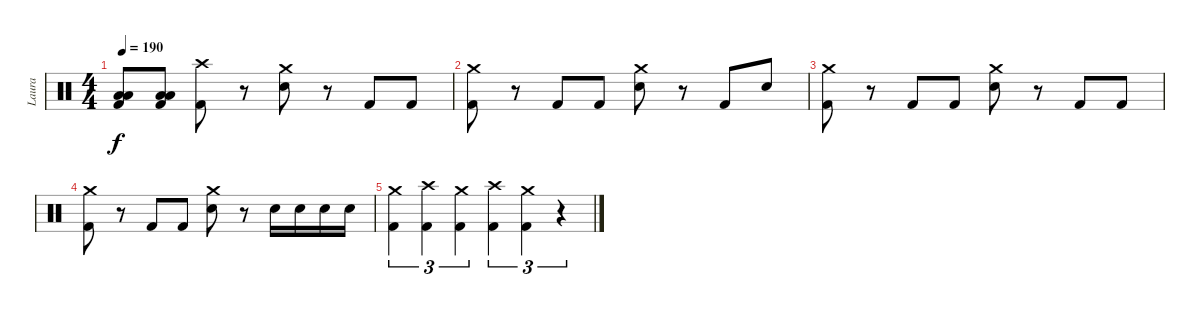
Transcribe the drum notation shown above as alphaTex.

\track ("Laura" "Laura") {instrument percussion}
\staff {score}
\articulation defaults
\ts (4 4)
\tempo 190
\clef neutral
\ks c
("Low Floor Tom (hit)" "Low Floor Tom (hit)" "Kick (hit) 2").8{dy f} ("Low Floor Tom (hit)" "Low Floor Tom (hit)" "Kick (hit) 2").8 ("Crash high (hit)" "Kick (hit) 2").8 r.8 ("Crash medium (hit)" "Electric Snare (hit)").8 r.8 "Kick (hit) 2".8 "Kick (hit) 2".8 |
("Crash medium (hit)" "Kick (hit) 2").8 r.8 "Kick (hit) 2".8 "Kick (hit) 2".8 ("Crash medium (hit)" "Electric Snare (hit)").8 r.8 "Kick (hit) 2".8 "Electric Snare (hit)".8 |
("Crash medium (hit)" "Kick (hit) 2").8 r.8 "Kick (hit) 2".8 "Kick (hit) 2".8 ("Crash medium (hit)" "Electric Snare (hit)").8 r.8 "Kick (hit) 2".8 "Kick (hit) 2".8 |
("Crash medium (hit)" "Kick (hit) 2").8 r.8 "Kick (hit) 2".8 "Kick (hit) 2".8 ("Crash medium (hit)" "Electric Snare (hit)").8 r.8 "Electric Snare (hit)".16 "Electric Snare (hit)".16 "Electric Snare (hit)".16 "Electric Snare (hit)".16 |
("Crash medium (hit)" "Kick (hit) 2").4{tu (3 2)} ("Crash high (hit)" "Kick (hit) 2").4{tu (3 2)} ("Crash medium (hit)" "Kick (hit) 2").4{tu (3 2)} ("Crash high (hit)" "Kick (hit) 2").4{tu (3 2)} ("Crash medium (hit)" "Kick (hit) 2").4{tu (3 2)} r.4{tu (3 2)}
